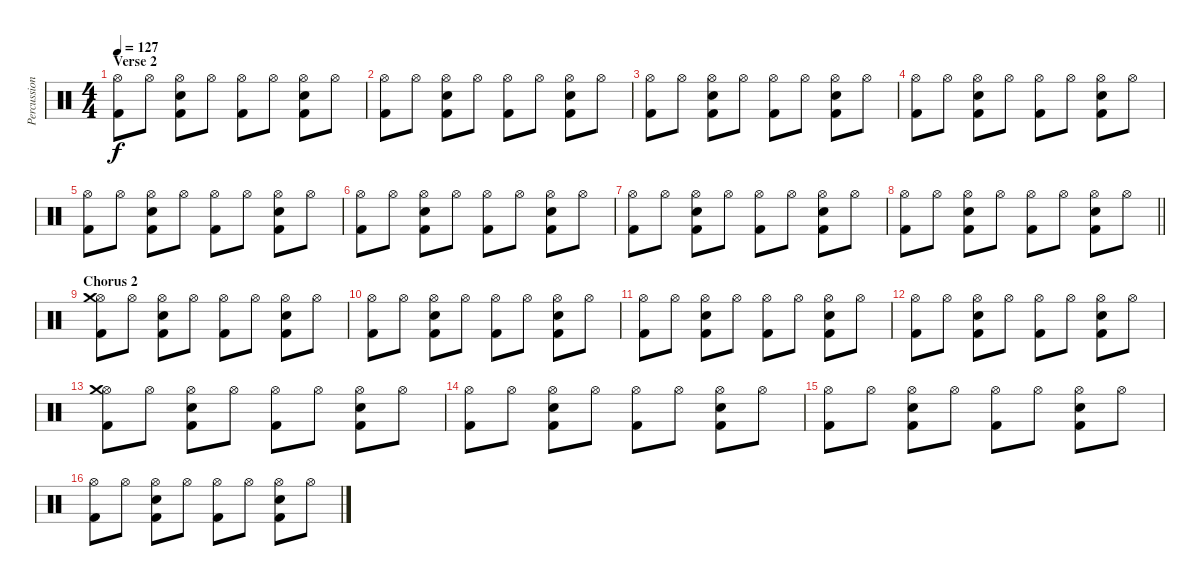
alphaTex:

\track ("Percussion" "Percussion") {instrument percussion}
\staff {score}
\articulation defaults
\ts (4 4)
\section ("" "Verse 2")
\tempo 127
\clef neutral
\ks c
("Hi-Hat (open)" "Kick (hit) 2").8{dy f} "Hi-Hat (open)".8 ("Hi-Hat (open)" "Electric Snare (hit)" "Kick (hit) 2").8 "Hi-Hat (open)".8 ("Hi-Hat (open)" "Kick (hit) 2").8 "Hi-Hat (open)".8 ("Hi-Hat (open)" "Electric Snare (hit)" "Kick (hit) 2").8 "Hi-Hat (open)".8 |
("Hi-Hat (open)" "Kick (hit) 2").8 "Hi-Hat (open)".8 ("Hi-Hat (open)" "Electric Snare (hit)" "Kick (hit) 2").8 "Hi-Hat (open)".8 ("Hi-Hat (open)" "Kick (hit) 2").8 "Hi-Hat (open)".8 ("Hi-Hat (open)" "Electric Snare (hit)" "Kick (hit) 2").8 "Hi-Hat (open)".8 |
("Hi-Hat (open)" "Kick (hit) 2").8 "Hi-Hat (open)".8 ("Hi-Hat (open)" "Electric Snare (hit)" "Kick (hit) 2").8 "Hi-Hat (open)".8 ("Hi-Hat (open)" "Kick (hit) 2").8 "Hi-Hat (open)".8 ("Hi-Hat (open)" "Electric Snare (hit)" "Kick (hit) 2").8 "Hi-Hat (open)".8 |
("Hi-Hat (open)" "Kick (hit) 2").8 "Hi-Hat (open)".8 ("Hi-Hat (open)" "Electric Snare (hit)" "Kick (hit) 2").8 "Hi-Hat (open)".8 ("Hi-Hat (open)" "Kick (hit) 2").8 "Hi-Hat (open)".8 ("Hi-Hat (open)" "Electric Snare (hit)" "Kick (hit) 2").8 "Hi-Hat (open)".8 |
("Hi-Hat (open)" "Kick (hit) 2").8 "Hi-Hat (open)".8 ("Hi-Hat (open)" "Electric Snare (hit)" "Kick (hit) 2").8 "Hi-Hat (open)".8 ("Hi-Hat (open)" "Kick (hit) 2").8 "Hi-Hat (open)".8 ("Hi-Hat (open)" "Electric Snare (hit)" "Kick (hit) 2").8 "Hi-Hat (open)".8 |
("Hi-Hat (open)" "Kick (hit) 2").8 "Hi-Hat (open)".8 ("Hi-Hat (open)" "Electric Snare (hit)" "Kick (hit) 2").8 "Hi-Hat (open)".8 ("Hi-Hat (open)" "Kick (hit) 2").8 "Hi-Hat (open)".8 ("Hi-Hat (open)" "Electric Snare (hit)" "Kick (hit) 2").8 "Hi-Hat (open)".8 |
("Hi-Hat (open)" "Kick (hit) 2").8 "Hi-Hat (open)".8 ("Hi-Hat (open)" "Electric Snare (hit)" "Kick (hit) 2").8 "Hi-Hat (open)".8 ("Hi-Hat (open)" "Kick (hit) 2").8 "Hi-Hat (open)".8 ("Hi-Hat (open)" "Electric Snare (hit)" "Kick (hit) 2").8 "Hi-Hat (open)".8 |
\barLineRight lightlight
("Hi-Hat (open)" "Kick (hit) 2").8 "Hi-Hat (open)".8 ("Hi-Hat (open)" "Electric Snare (hit)" "Kick (hit) 2").8 "Hi-Hat (open)".8 ("Hi-Hat (open)" "Kick (hit) 2").8 "Hi-Hat (open)".8 ("Hi-Hat (open)" "Electric Snare (hit)" "Kick (hit) 2").8 "Hi-Hat (open)".8 |
\section ("" "Chorus 2")
("Hi-Hat (open)" "Crash medium (hit)" "Kick (hit) 2").8 "Hi-Hat (open)".8 ("Hi-Hat (open)" "Electric Snare (hit)" "Kick (hit) 2").8 "Hi-Hat (open)".8 ("Hi-Hat (open)" "Kick (hit) 2").8 "Hi-Hat (open)".8 ("Hi-Hat (open)" "Electric Snare (hit)" "Kick (hit) 2").8 "Hi-Hat (open)".8 |
("Hi-Hat (open)" "Kick (hit) 2").8 "Hi-Hat (open)".8 ("Hi-Hat (open)" "Electric Snare (hit)" "Kick (hit) 2").8 "Hi-Hat (open)".8 ("Hi-Hat (open)" "Kick (hit) 2").8 "Hi-Hat (open)".8 ("Hi-Hat (open)" "Electric Snare (hit)" "Kick (hit) 2").8 "Hi-Hat (open)".8 |
("Hi-Hat (open)" "Kick (hit) 2").8 "Hi-Hat (open)".8 ("Hi-Hat (open)" "Electric Snare (hit)" "Kick (hit) 2").8 "Hi-Hat (open)".8 ("Hi-Hat (open)" "Kick (hit) 2").8 "Hi-Hat (open)".8 ("Hi-Hat (open)" "Electric Snare (hit)" "Kick (hit) 2").8 "Hi-Hat (open)".8 |
("Hi-Hat (open)" "Kick (hit) 2").8 "Hi-Hat (open)".8 ("Hi-Hat (open)" "Electric Snare (hit)" "Kick (hit) 2").8 "Hi-Hat (open)".8 ("Hi-Hat (open)" "Kick (hit) 2").8 "Hi-Hat (open)".8 ("Hi-Hat (open)" "Electric Snare (hit)" "Kick (hit) 2").8 "Hi-Hat (open)".8 |
("Hi-Hat (open)" "Crash medium (hit)" "Kick (hit) 2").8 "Hi-Hat (open)".8 ("Hi-Hat (open)" "Electric Snare (hit)" "Kick (hit) 2").8 "Hi-Hat (open)".8 ("Hi-Hat (open)" "Kick (hit) 2").8 "Hi-Hat (open)".8 ("Hi-Hat (open)" "Electric Snare (hit)" "Kick (hit) 2").8 "Hi-Hat (open)".8 |
("Hi-Hat (open)" "Kick (hit) 2").8 "Hi-Hat (open)".8 ("Hi-Hat (open)" "Electric Snare (hit)" "Kick (hit) 2").8 "Hi-Hat (open)".8 ("Hi-Hat (open)" "Kick (hit) 2").8 "Hi-Hat (open)".8 ("Hi-Hat (open)" "Electric Snare (hit)" "Kick (hit) 2").8 "Hi-Hat (open)".8 |
("Hi-Hat (open)" "Kick (hit) 2").8 "Hi-Hat (open)".8 ("Hi-Hat (open)" "Electric Snare (hit)" "Kick (hit) 2").8 "Hi-Hat (open)".8 ("Hi-Hat (open)" "Kick (hit) 2").8 "Hi-Hat (open)".8 ("Hi-Hat (open)" "Electric Snare (hit)" "Kick (hit) 2").8 "Hi-Hat (open)".8 |
("Hi-Hat (open)" "Kick (hit) 2").8 "Hi-Hat (open)".8 ("Hi-Hat (open)" "Electric Snare (hit)" "Kick (hit) 2").8 "Hi-Hat (open)".8 ("Hi-Hat (open)" "Kick (hit) 2").8 "Hi-Hat (open)".8 ("Hi-Hat (open)" "Electric Snare (hit)" "Kick (hit) 2").8 "Hi-Hat (open)".8
